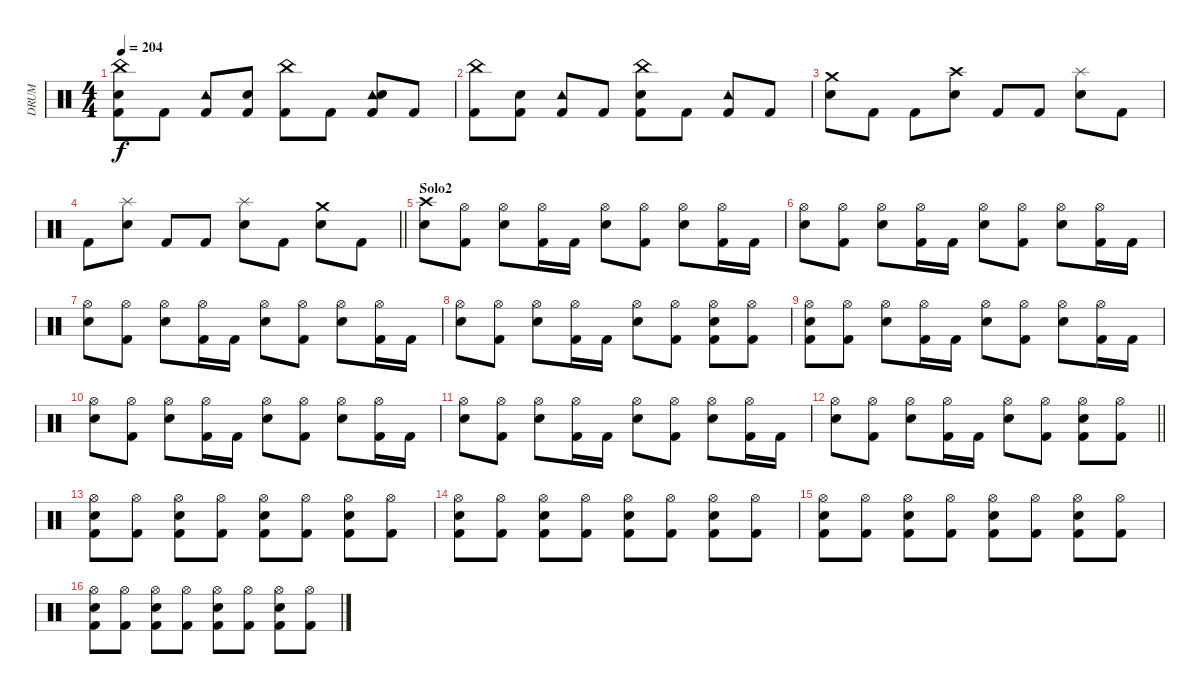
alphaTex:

\track ("DRUM" "DRUM") {instrument percussion bank 102}
\staff {score}
\articulation defaults
\ts (4 4)
\tempo 204
\clef neutral
\ks c
("China (hit)" "Electric Snare (hit)" "Kick (hit) 2").8{dy f} "Kick (hit) 2".8 ("Tambourine (hit)" "Kick (hit) 2").8 ("Electric Snare (hit)" "Kick (hit) 2").8 ("China (hit)" "Kick (hit) 2").8 "Kick (hit) 2".8 ("Tambourine (hit)" "Electric Snare (hit)" "Kick (hit) 2").8 "Kick (hit) 2".8 |
("China (hit)" "Kick (hit) 2").8 ("Electric Snare (hit)" "Kick (hit) 2").8 ("Tambourine (hit)" "Kick (hit) 2").8 "Kick (hit) 2".8 ("China (hit)" "Electric Snare (hit)" "Kick (hit) 2").8 "Kick (hit) 2".8 ("Tambourine (hit)" "Kick (hit) 2").8 "Kick (hit) 2".8 |
("Crash medium (hit)" "Electric Snare (hit)").8 "Kick (hit) 2".8 "Kick (hit) 2".8 ("Crash high (hit)" "Electric Snare (hit)").8 "Kick (hit) 2".8 "Kick (hit) 2".8 ("Splash (hit)" "Electric Snare (hit)").8 "Kick (hit) 2".8 |
\barLineRight lightlight "Kick (hit) 2".8
("Splash (hit)" "Electric Snare (hit)").8 "Kick (hit) 2".8 "Kick (hit) 2".8 ("Splash (hit)" "Electric Snare (hit)").8 "Kick (hit) 2".8 ("Crash medium (hit)" "Electric Snare (hit)").8 "Kick (hit) 2".8 |
\section ("" "Solo2")
("Crash high (hit)" "Electric Snare (hit)").8 ("Hi-Hat (open)" "Kick (hit) 2").8 ("Hi-Hat (open)" "Electric Snare (hit)").8 ("Hi-Hat (open)" "Kick (hit) 2").16 "Kick (hit) 2".16 ("Hi-Hat (open)" "Electric Snare (hit)").8 ("Hi-Hat (open)" "Kick (hit) 2").8 ("Hi-Hat (open)" "Electric Snare (hit)").8 ("Hi-Hat (open)" "Kick (hit) 2").16 "Kick (hit) 2".16 |
("Hi-Hat (open)" "Electric Snare (hit)").8 ("Hi-Hat (open)" "Kick (hit) 2").8 ("Hi-Hat (open)" "Electric Snare (hit)").8 ("Hi-Hat (open)" "Kick (hit) 2").16 "Kick (hit) 2".16 ("Hi-Hat (open)" "Electric Snare (hit)").8 ("Hi-Hat (open)" "Kick (hit) 2").8 ("Hi-Hat (open)" "Electric Snare (hit)").8 ("Hi-Hat (open)" "Kick (hit) 2").16 "Kick (hit) 2".16 |
("Hi-Hat (open)" "Electric Snare (hit)").8 ("Hi-Hat (open)" "Kick (hit) 2").8 ("Hi-Hat (open)" "Electric Snare (hit)").8 ("Hi-Hat (open)" "Kick (hit) 2").16 "Kick (hit) 2".16 ("Hi-Hat (open)" "Electric Snare (hit)").8 ("Hi-Hat (open)" "Kick (hit) 2").8 ("Hi-Hat (open)" "Electric Snare (hit)").8 ("Hi-Hat (open)" "Kick (hit) 2").16 "Kick (hit) 2".16 |
("Hi-Hat (open)" "Electric Snare (hit)").8 ("Hi-Hat (open)" "Kick (hit) 2").8 ("Hi-Hat (open)" "Electric Snare (hit)").8 ("Hi-Hat (open)" "Kick (hit) 2").16 "Kick (hit) 2".16 ("Hi-Hat (open)" "Electric Snare (hit)").8 ("Hi-Hat (open)" "Kick (hit) 2").8 ("Hi-Hat (open)" "Electric Snare (hit)" "Kick (hit) 2").8 ("Hi-Hat (open)" "Kick (hit) 2").8 |
("Hi-Hat (open)" "Electric Snare (hit)" "Kick (hit) 2").8 ("Hi-Hat (open)" "Kick (hit) 2").8 ("Hi-Hat (open)" "Electric Snare (hit)").8 ("Hi-Hat (open)" "Kick (hit) 2").16 "Kick (hit) 2".16 ("Hi-Hat (open)" "Electric Snare (hit)").8 ("Hi-Hat (open)" "Kick (hit) 2").8 ("Hi-Hat (open)" "Electric Snare (hit)").8 ("Hi-Hat (open)" "Kick (hit) 2").16 "Kick (hit) 2".16 |
("Hi-Hat (open)" "Electric Snare (hit)").8 ("Hi-Hat (open)" "Kick (hit) 2").8 ("Hi-Hat (open)" "Electric Snare (hit)").8 ("Hi-Hat (open)" "Kick (hit) 2").16 "Kick (hit) 2".16 ("Hi-Hat (open)" "Electric Snare (hit)").8 ("Hi-Hat (open)" "Kick (hit) 2").8 ("Hi-Hat (open)" "Electric Snare (hit)").8 ("Hi-Hat (open)" "Kick (hit) 2").16 "Kick (hit) 2".16 |
("Hi-Hat (open)" "Electric Snare (hit)").8 ("Hi-Hat (open)" "Kick (hit) 2").8 ("Hi-Hat (open)" "Electric Snare (hit)").8 ("Hi-Hat (open)" "Kick (hit) 2").16 "Kick (hit) 2".16 ("Hi-Hat (open)" "Electric Snare (hit)").8 ("Hi-Hat (open)" "Kick (hit) 2").8 ("Hi-Hat (open)" "Electric Snare (hit)").8 ("Hi-Hat (open)" "Kick (hit) 2").16 "Kick (hit) 2".16 |
\barLineRight lightlight
("Hi-Hat (open)" "Electric Snare (hit)").8 ("Hi-Hat (open)" "Kick (hit) 2").8 ("Hi-Hat (open)" "Electric Snare (hit)").8 ("Hi-Hat (open)" "Kick (hit) 2").16 "Kick (hit) 2".16 ("Hi-Hat (open)" "Electric Snare (hit)").8 ("Hi-Hat (open)" "Kick (hit) 2").8 ("Hi-Hat (open)" "Electric Snare (hit)" "Kick (hit) 2").8 ("Hi-Hat (open)" "Kick (hit) 2").8 |
("Hi-Hat (open)" "Electric Snare (hit)" "Kick (hit) 2").8 ("Hi-Hat (open)" "Kick (hit) 2").8 ("Hi-Hat (open)" "Electric Snare (hit)" "Kick (hit) 2").8 ("Hi-Hat (open)" "Kick (hit) 2").8 ("Hi-Hat (open)" "Electric Snare (hit)" "Kick (hit) 2").8 ("Hi-Hat (open)" "Kick (hit) 2").8 ("Hi-Hat (open)" "Electric Snare (hit)" "Kick (hit) 2").8 ("Hi-Hat (open)" "Kick (hit) 2").8 |
("Hi-Hat (open)" "Electric Snare (hit)" "Kick (hit) 2").8 ("Hi-Hat (open)" "Kick (hit) 2").8 ("Hi-Hat (open)" "Electric Snare (hit)" "Kick (hit) 2").8 ("Hi-Hat (open)" "Kick (hit) 2").8 ("Hi-Hat (open)" "Electric Snare (hit)" "Kick (hit) 2").8 ("Hi-Hat (open)" "Kick (hit) 2").8 ("Hi-Hat (open)" "Electric Snare (hit)" "Kick (hit) 2").8 ("Hi-Hat (open)" "Kick (hit) 2").8 |
("Hi-Hat (open)" "Electric Snare (hit)" "Kick (hit) 2").8 ("Hi-Hat (open)" "Kick (hit) 2").8 ("Hi-Hat (open)" "Electric Snare (hit)" "Kick (hit) 2").8 ("Hi-Hat (open)" "Kick (hit) 2").8 ("Hi-Hat (open)" "Electric Snare (hit)" "Kick (hit) 2").8 ("Hi-Hat (open)" "Kick (hit) 2").8 ("Hi-Hat (open)" "Electric Snare (hit)" "Kick (hit) 2").8 ("Hi-Hat (open)" "Kick (hit) 2").8 |
("Hi-Hat (open)" "Electric Snare (hit)" "Kick (hit) 2").8 ("Hi-Hat (open)" "Kick (hit) 2").8 ("Hi-Hat (open)" "Electric Snare (hit)" "Kick (hit) 2").8 ("Hi-Hat (open)" "Kick (hit) 2").8 ("Hi-Hat (open)" "Electric Snare (hit)" "Kick (hit) 2").8 ("Hi-Hat (open)" "Kick (hit) 2").8 ("Hi-Hat (open)" "Electric Snare (hit)" "Kick (hit) 2").8 ("Hi-Hat (open)" "Kick (hit) 2").8
